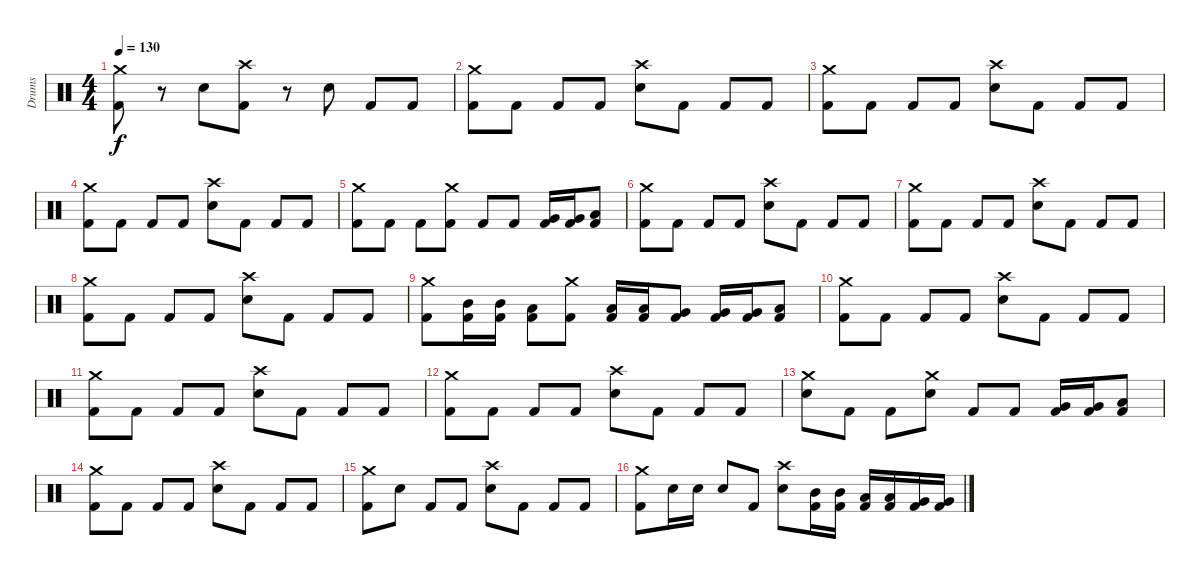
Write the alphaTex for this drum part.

\track ("Drums" "Drums") {instrument percussion}
\staff {score}
\articulation defaults
\ts (4 4)
\tempo 130
\clef neutral
\ks c
("Crash medium (hit)" "Kick (hit) 2").8{dy f} r.8 "Electric Snare (hit)".8 ("Crash high (hit)" "Kick (hit) 2").8 r.8 "Electric Snare (hit)".8 "Kick (hit) 2".8 "Kick (hit) 2".8 |
\section ("" "")
("Crash medium (hit)" "Kick (hit) 2").8 "Kick (hit) 2".8 "Kick (hit) 2".8 "Kick (hit) 2".8 ("Crash high (hit)" "Electric Snare (hit)").8 "Kick (hit) 2".8 "Kick (hit) 2".8 "Kick (hit) 2".8 |
("Crash medium (hit)" "Kick (hit) 2").8 "Kick (hit) 2".8 "Kick (hit) 2".8 "Kick (hit) 2".8 ("Crash high (hit)" "Electric Snare (hit)").8 "Kick (hit) 2".8 "Kick (hit) 2".8 "Kick (hit) 2".8 |
("Crash medium (hit)" "Kick (hit) 2").8 "Kick (hit) 2".8 "Kick (hit) 2".8 "Kick (hit) 2".8 ("Crash high (hit)" "Electric Snare (hit)").8 "Kick (hit) 2".8 "Kick (hit) 2".8 "Kick (hit) 2".8 |
("Crash medium (hit)" "Kick (hit) 2").8 "Kick (hit) 2".8 "Kick (hit) 2".8 ("Crash medium (hit)" "Kick (hit) 2").8 "Kick (hit) 2".8 "Kick (hit) 2".8 ("Very Low Tom (hit)" "Kick (hit) 2").16 ("Very Low Tom (hit)" "Kick (hit) 2").16 ("Low Floor Tom (hit)" "Kick (hit) 2").8 |
("Crash medium (hit)" "Kick (hit) 2").8 "Kick (hit) 2".8 "Kick (hit) 2".8 "Kick (hit) 2".8 ("Crash high (hit)" "Electric Snare (hit)").8 "Kick (hit) 2".8 "Kick (hit) 2".8 "Kick (hit) 2".8 |
("Crash medium (hit)" "Kick (hit) 2").8 "Kick (hit) 2".8 "Kick (hit) 2".8 "Kick (hit) 2".8 ("Crash high (hit)" "Electric Snare (hit)").8 "Kick (hit) 2".8 "Kick (hit) 2".8 "Kick (hit) 2".8 |
("Crash medium (hit)" "Kick (hit) 2").8 "Kick (hit) 2".8 "Kick (hit) 2".8 "Kick (hit) 2".8 ("Crash high (hit)" "Electric Snare (hit)").8 "Kick (hit) 2".8 "Kick (hit) 2".8 "Kick (hit) 2".8 |
("Crash medium (hit)" "Kick (hit) 2").8 ("Mid Tom (hit)" "Kick (hit) 2").16 ("Mid Tom (hit)" "Kick (hit) 2").16 ("Low Tom (hit)" "Kick (hit) 2").8 ("Crash medium (hit)" "Kick (hit) 2").8 ("Low Tom (hit)" "Kick (hit) 2").16 ("Low Tom (hit)" "Kick (hit) 2").16 ("Very Low Tom (hit)" "Kick (hit) 2").8 ("Very Low Tom (hit)" "Kick (hit) 2").16 ("Very Low Tom (hit)" "Kick (hit) 2").16 ("Low Floor Tom (hit)" "Kick (hit) 2").8 |
("Crash medium (hit)" "Kick (hit) 2").8 "Kick (hit) 2".8 "Kick (hit) 2".8 "Kick (hit) 2".8 ("Crash high (hit)" "Electric Snare (hit)").8 "Kick (hit) 2".8 "Kick (hit) 2".8 "Kick (hit) 2".8 |
("Crash medium (hit)" "Kick (hit) 2").8 "Kick (hit) 2".8 "Kick (hit) 2".8 "Kick (hit) 2".8 ("Crash high (hit)" "Electric Snare (hit)").8 "Kick (hit) 2".8 "Kick (hit) 2".8 "Kick (hit) 2".8 |
("Crash medium (hit)" "Kick (hit) 2").8 "Kick (hit) 2".8 "Kick (hit) 2".8 "Kick (hit) 2".8 ("Crash high (hit)" "Electric Snare (hit)").8 "Kick (hit) 2".8 "Kick (hit) 2".8 "Kick (hit) 2".8 |
("Crash medium (hit)" "Electric Snare (hit)").8 "Kick (hit) 2".8 "Kick (hit) 2".8 ("Crash medium (hit)" "Electric Snare (hit)").8 "Kick (hit) 2".8 "Kick (hit) 2".8 ("Very Low Tom (hit)" "Kick (hit) 2").16 ("Very Low Tom (hit)" "Kick (hit) 2").16 ("Low Floor Tom (hit)" "Kick (hit) 2").8 |
("Crash medium (hit)" "Kick (hit) 2").8 "Kick (hit) 2".8 "Kick (hit) 2".8 "Kick (hit) 2".8 ("Crash high (hit)" "Electric Snare (hit)").8 "Kick (hit) 2".8 "Kick (hit) 2".8 "Kick (hit) 2".8 |
("Crash medium (hit)" "Kick (hit) 2").8 "Electric Snare (hit)".8 "Kick (hit) 2".8 "Kick (hit) 2".8 ("Crash high (hit)" "Electric Snare (hit)").8 "Kick (hit) 2".8 "Kick (hit) 2".8 "Kick (hit) 2".8 |
("Crash medium (hit)" "Kick (hit) 2").8 "Electric Snare (hit)".16 "Electric Snare (hit)".16 "Electric Snare (hit)".8 "Kick (hit) 2".8 ("Crash high (hit)" "Electric Snare (hit)").8 ("Mid Tom (hit)" "Kick (hit) 2").16 ("Mid Tom (hit)" "Kick (hit) 2").16 ("Low Tom (hit)" "Kick (hit) 2").16 ("Low Tom (hit)" "Kick (hit) 2").16 ("Very Low Tom (hit)" "Kick (hit) 2").16 ("Very Low Tom (hit)" "Kick (hit) 2").16
